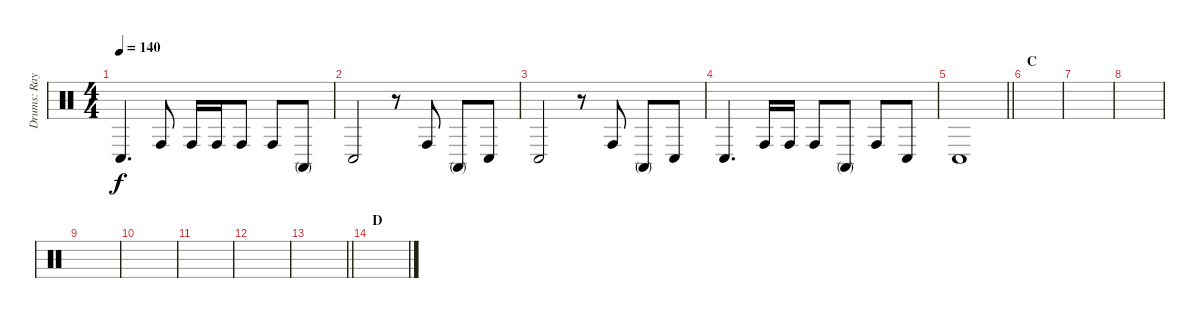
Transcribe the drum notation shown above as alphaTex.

\track ("Drums: Ray Cooper" "Drums: Ray") {instrument percussion}
\staff {score}
\articulation defaults
\ts (4 4)
\tempo 140
\clef neutral
\ks c "Conga low (hit)".4{d dy f} "Conga high (hit)".8 "Conga high (hit)".16 "Conga high (hit)".16 "Conga high (hit)".8 "Conga high (hit)".8 "Conga high (mute)".8
|
"Conga low (hit)".2 r.8 "Conga high (hit)".8 "Conga high (mute)".8 "Conga low (hit)".8 |
"Conga low (hit)".2 r.8 "Conga high (hit)".8 "Conga high (mute)".8 "Conga low (hit)".8 |
"Conga low (hit)".4{d} "Conga high (hit)".16 "Conga high (hit)".16 "Conga high (hit)".8 "Conga high (mute)".8 "Conga high (hit)".8 "Conga low (hit)".8 |
\barLineRight lightlight "Conga low (hit)".1
|
\section ("" "C")
|
|
|
|
|
|
|
\barLineRight lightlight
|
\section ("" "D")
